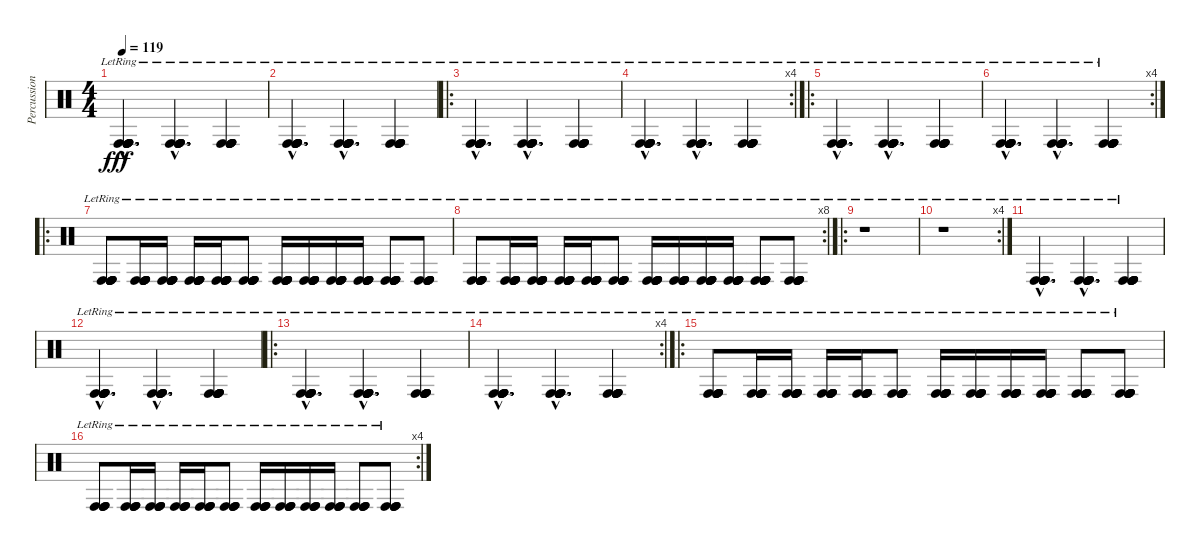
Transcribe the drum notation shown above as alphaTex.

\track ("Percussion" "Percussion") {instrument percussion}
\staff {score}
\articulation defaults
\ts (4 4)
\tempo 119
\clef neutral
\ks c
("Conga high (hit)"{hac lr} "Conga high (hit)"{hac lr} "Conga high (hit)"{hac lr} "Conga high (hit)"{hac lr} "Conga high (hit)"{hac lr} "Conga high (hit)"{hac lr}).4{d dy fff} ("Conga high (hit)"{hac lr} "Conga high (hit)"{hac lr} "Conga high (hit)"{hac lr} "Conga high (hit)"{hac lr} "Conga high (hit)"{hac lr} "Conga high (hit)"{hac lr}).4{d} ("Conga high (hit)"{lr} "Conga high (hit)"{lr} "Conga high (hit)"{lr} "Conga high (hit)"{lr} "Conga high (hit)"{lr} "Conga high (hit)"{lr}).4 |
("Conga high (hit)"{hac lr} "Conga high (hit)"{hac lr} "Conga high (hit)"{hac lr} "Conga high (hit)"{hac lr} "Conga high (hit)"{hac lr} "Conga high (hit)"{hac lr}).4{d} ("Conga high (hit)"{hac lr} "Conga high (hit)"{hac lr} "Conga high (hit)"{hac lr} "Conga high (hit)"{hac lr} "Conga high (hit)"{hac lr} "Conga high (hit)"{hac lr}).4{d} ("Conga high (hit)"{lr} "Conga high (hit)"{lr} "Conga high (hit)"{lr} "Conga high (hit)"{lr} "Conga high (hit)"{lr} "Conga high (hit)"{lr}).4 |
\ro
("Conga high (hit)"{hac lr} "Conga high (hit)"{hac lr} "Conga high (hit)"{hac lr} "Conga high (hit)"{hac lr} "Conga high (hit)"{hac lr} "Conga high (hit)"{hac lr}).4{d} ("Conga high (hit)"{hac lr} "Conga high (hit)"{hac lr} "Conga high (hit)"{hac lr} "Conga high (hit)"{hac lr} "Conga high (hit)"{hac lr} "Conga high (hit)"{hac lr}).4{d} ("Conga high (hit)"{lr} "Conga high (hit)"{lr} "Conga high (hit)"{lr} "Conga high (hit)"{lr} "Conga high (hit)"{lr} "Conga high (hit)"{lr}).4 |
\rc 4
("Conga high (hit)"{hac lr} "Conga high (hit)"{hac lr} "Conga high (hit)"{hac lr} "Conga high (hit)"{hac lr} "Conga high (hit)"{hac lr} "Conga high (hit)"{hac lr}).4{d} ("Conga high (hit)"{hac lr} "Conga high (hit)"{hac lr} "Conga high (hit)"{hac lr} "Conga high (hit)"{hac lr} "Conga high (hit)"{hac lr} "Conga high (hit)"{hac lr}).4{d} ("Conga high (hit)"{lr} "Conga high (hit)"{lr} "Conga high (hit)"{lr} "Conga high (hit)"{lr} "Conga high (hit)"{lr} "Conga high (hit)"{lr}).4 |
\ro
("Conga high (hit)"{hac lr} "Conga high (hit)"{hac lr} "Conga high (hit)"{hac lr} "Conga high (hit)"{hac lr} "Conga high (hit)"{hac lr} "Conga high (hit)"{hac lr}).4{d} ("Conga high (hit)"{hac lr} "Conga high (hit)"{hac lr} "Conga high (hit)"{hac lr} "Conga high (hit)"{hac lr} "Conga high (hit)"{hac lr} "Conga high (hit)"{hac lr}).4{d} ("Conga high (hit)"{lr} "Conga high (hit)"{lr} "Conga high (hit)"{lr} "Conga high (hit)"{lr} "Conga high (hit)"{lr} "Conga high (hit)"{lr}).4 |
\rc 4
("Conga high (hit)"{hac lr} "Conga high (hit)"{hac lr} "Conga high (hit)"{hac lr} "Conga high (hit)"{hac lr} "Conga high (hit)"{hac lr} "Conga high (hit)"{hac lr}).4{d} ("Conga high (hit)"{hac lr} "Conga high (hit)"{hac lr} "Conga high (hit)"{hac lr} "Conga high (hit)"{hac lr} "Conga high (hit)"{hac lr} "Conga high (hit)"{hac lr}).4{d} ("Conga high (hit)"{lr} "Conga high (hit)"{lr} "Conga high (hit)"{lr} "Conga high (hit)"{lr} "Conga high (hit)"{lr} "Conga high (hit)"{lr}).4 |
\ro
("Conga high (hit)"{lr} "Conga high (hit)"{lr} "Conga high (hit)"{lr} "Conga high (hit)"{lr} "Conga high (hit)" "Conga high (hit)").8 ("Conga high (hit)"{lr} "Conga high (hit)"{lr} "Conga high (hit)"{lr} "Conga high (hit)"{lr} "Conga high (hit)" "Conga high (hit)").16 ("Conga high (hit)"{lr} "Conga high (hit)"{lr} "Conga high (hit)"{lr} "Conga high (hit)"{lr} "Conga high (hit)" "Conga high (hit)").16 ("Conga high (hit)"{lr} "Conga high (hit)"{lr} "Conga high (hit)"{lr} "Conga high (hit)"{lr} "Conga high (hit)" "Conga high (hit)").16 ("Conga high (hit)"{lr} "Conga high (hit)"{lr} "Conga high (hit)"{lr} "Conga high (hit)"{lr} "Conga high (hit)" "Conga high (hit)").16 ("Conga high (hit)"{lr} "Conga high (hit)"{lr} "Conga high (hit)"{lr} "Conga high (hit)"{lr} "Conga high (hit)" "Conga high (hit)").8 ("Conga high (hit)"{lr} "Conga high (hit)"{lr} "Conga high (hit)"{lr} "Conga high (hit)"{lr} "Conga high (hit)" "Conga high (hit)").16 ("Conga high (hit)"{lr} "Conga high (hit)"{lr} "Conga high (hit)"{lr} "Conga high (hit)"{lr} "Conga high (hit)" "Conga high (hit)").16 ("Conga high (hit)"{lr} "Conga high (hit)"{lr} "Conga high (hit)"{lr} "Conga high (hit)"{lr} "Conga high (hit)" "Conga high (hit)").16 ("Conga high (hit)"{lr} "Conga high (hit)"{lr} "Conga high (hit)"{lr} "Conga high (hit)"{lr} "Conga high (hit)" "Conga high (hit)").16 ("Conga high (hit)"{lr} "Conga high (hit)"{lr} "Conga high (hit)"{lr} "Conga high (hit)"{lr} "Conga high (hit)" "Conga high (hit)").8 ("Conga high (hit)"{lr} "Conga high (hit)"{lr} "Conga high (hit)"{lr} "Conga high (hit)"{lr} "Conga high (hit)" "Conga high (hit)").8 |
\rc 8
("Conga high (hit)"{lr} "Conga high (hit)"{lr} "Conga high (hit)"{lr} "Conga high (hit)"{lr} "Conga high (hit)" "Conga high (hit)").8 ("Conga high (hit)"{lr} "Conga high (hit)"{lr} "Conga high (hit)"{lr} "Conga high (hit)"{lr} "Conga high (hit)" "Conga high (hit)").16 ("Conga high (hit)"{lr} "Conga high (hit)"{lr} "Conga high (hit)"{lr} "Conga high (hit)"{lr} "Conga high (hit)" "Conga high (hit)").16 ("Conga high (hit)"{lr} "Conga high (hit)"{lr} "Conga high (hit)"{lr} "Conga high (hit)"{lr} "Conga high (hit)" "Conga high (hit)").16 ("Conga high (hit)"{lr} "Conga high (hit)"{lr} "Conga high (hit)"{lr} "Conga high (hit)"{lr} "Conga high (hit)" "Conga high (hit)").16 ("Conga high (hit)"{lr} "Conga high (hit)"{lr} "Conga high (hit)"{lr} "Conga high (hit)"{lr} "Conga high (hit)" "Conga high (hit)").8 ("Conga high (hit)"{lr} "Conga high (hit)"{lr} "Conga high (hit)"{lr} "Conga high (hit)"{lr} "Conga high (hit)" "Conga high (hit)").16 ("Conga high (hit)"{lr} "Conga high (hit)"{lr} "Conga high (hit)"{lr} "Conga high (hit)"{lr} "Conga high (hit)" "Conga high (hit)").16 ("Conga high (hit)"{lr} "Conga high (hit)"{lr} "Conga high (hit)"{lr} "Conga high (hit)"{lr} "Conga high (hit)" "Conga high (hit)").16 ("Conga high (hit)"{lr} "Conga high (hit)"{lr} "Conga high (hit)"{lr} "Conga high (hit)"{lr} "Conga high (hit)" "Conga high (hit)").16 ("Conga high (hit)"{lr} "Conga high (hit)"{lr} "Conga high (hit)"{lr} "Conga high (hit)"{lr} "Conga high (hit)" "Conga high (hit)").8 ("Conga high (hit)"{lr} "Conga high (hit)"{lr} "Conga high (hit)"{lr} "Conga high (hit)"{lr} "Conga high (hit)" "Conga high (hit)").8 |
\ro
r.1 |
\rc 4
r.1 |
("Conga high (hit)"{hac lr} "Conga high (hit)"{hac lr} "Conga high (hit)"{hac lr} "Conga high (hit)"{hac lr} "Conga high (hit)"{hac lr} "Conga high (hit)"{hac lr}).4{d} ("Conga high (hit)"{hac lr} "Conga high (hit)"{hac lr} "Conga high (hit)"{hac lr} "Conga high (hit)"{hac lr} "Conga high (hit)"{hac lr} "Conga high (hit)"{hac lr}).4{d} ("Conga high (hit)"{lr} "Conga high (hit)"{lr} "Conga high (hit)"{lr} "Conga high (hit)"{lr} "Conga high (hit)"{lr} "Conga high (hit)"{lr}).4 |
("Conga high (hit)"{hac lr} "Conga high (hit)"{hac lr} "Conga high (hit)"{hac lr} "Conga high (hit)"{hac lr} "Conga high (hit)"{hac lr} "Conga high (hit)"{hac lr}).4{d} ("Conga high (hit)"{hac lr} "Conga high (hit)"{hac lr} "Conga high (hit)"{hac lr} "Conga high (hit)"{hac lr} "Conga high (hit)"{hac lr} "Conga high (hit)"{hac lr}).4{d} ("Conga high (hit)"{lr} "Conga high (hit)"{lr} "Conga high (hit)"{lr} "Conga high (hit)"{lr} "Conga high (hit)"{lr} "Conga high (hit)"{lr}).4 |
\ro
("Conga high (hit)"{hac lr} "Conga high (hit)"{hac lr} "Conga high (hit)"{hac lr} "Conga high (hit)"{hac lr} "Conga high (hit)"{hac lr} "Conga high (hit)"{hac lr}).4{d} ("Conga high (hit)"{hac lr} "Conga high (hit)"{hac lr} "Conga high (hit)"{hac lr} "Conga high (hit)"{hac lr} "Conga high (hit)"{hac lr} "Conga high (hit)"{hac lr}).4{d} ("Conga high (hit)"{lr} "Conga high (hit)"{lr} "Conga high (hit)"{lr} "Conga high (hit)"{lr} "Conga high (hit)"{lr} "Conga high (hit)"{lr}).4 |
\rc 4
("Conga high (hit)"{hac lr} "Conga high (hit)"{hac lr} "Conga high (hit)"{hac lr} "Conga high (hit)"{hac lr} "Conga high (hit)"{hac lr} "Conga high (hit)"{hac lr}).4{d} ("Conga high (hit)"{hac lr} "Conga high (hit)"{hac lr} "Conga high (hit)"{hac lr} "Conga high (hit)"{hac lr} "Conga high (hit)"{hac lr} "Conga high (hit)"{hac lr}).4{d} ("Conga high (hit)"{lr} "Conga high (hit)"{lr} "Conga high (hit)"{lr} "Conga high (hit)"{lr} "Conga high (hit)"{lr} "Conga high (hit)"{lr}).4 |
\ro
("Conga high (hit)"{lr} "Conga high (hit)"{lr} "Conga high (hit)"{lr} "Conga high (hit)"{lr} "Conga high (hit)" "Conga high (hit)").8 ("Conga high (hit)"{lr} "Conga high (hit)"{lr} "Conga high (hit)"{lr} "Conga high (hit)"{lr} "Conga high (hit)" "Conga high (hit)").16 ("Conga high (hit)"{lr} "Conga high (hit)"{lr} "Conga high (hit)"{lr} "Conga high (hit)"{lr} "Conga high (hit)" "Conga high (hit)").16 ("Conga high (hit)"{lr} "Conga high (hit)"{lr} "Conga high (hit)"{lr} "Conga high (hit)"{lr} "Conga high (hit)" "Conga high (hit)").16 ("Conga high (hit)"{lr} "Conga high (hit)"{lr} "Conga high (hit)"{lr} "Conga high (hit)"{lr} "Conga high (hit)" "Conga high (hit)").16 ("Conga high (hit)"{lr} "Conga high (hit)"{lr} "Conga high (hit)"{lr} "Conga high (hit)"{lr} "Conga high (hit)" "Conga high (hit)").8 ("Conga high (hit)"{lr} "Conga high (hit)"{lr} "Conga high (hit)"{lr} "Conga high (hit)"{lr} "Conga high (hit)" "Conga high (hit)").16 ("Conga high (hit)"{lr} "Conga high (hit)"{lr} "Conga high (hit)"{lr} "Conga high (hit)"{lr} "Conga high (hit)" "Conga high (hit)").16 ("Conga high (hit)"{lr} "Conga high (hit)"{lr} "Conga high (hit)"{lr} "Conga high (hit)"{lr} "Conga high (hit)" "Conga high (hit)").16 ("Conga high (hit)"{lr} "Conga high (hit)"{lr} "Conga high (hit)"{lr} "Conga high (hit)"{lr} "Conga high (hit)" "Conga high (hit)").16 ("Conga high (hit)"{lr} "Conga high (hit)"{lr} "Conga high (hit)"{lr} "Conga high (hit)"{lr} "Conga high (hit)" "Conga high (hit)").8 ("Conga high (hit)"{lr} "Conga high (hit)"{lr} "Conga high (hit)"{lr} "Conga high (hit)"{lr} "Conga high (hit)" "Conga high (hit)").8 |
\rc 4
("Conga high (hit)"{lr} "Conga high (hit)"{lr} "Conga high (hit)"{lr} "Conga high (hit)"{lr}).8 ("Conga high (hit)"{lr} "Conga high (hit)"{lr} "Conga high (hit)"{lr} "Conga high (hit)"{lr}).16 ("Conga high (hit)"{lr} "Conga high (hit)"{lr} "Conga high (hit)"{lr} "Conga high (hit)"{lr}).16 ("Conga high (hit)"{lr} "Conga high (hit)"{lr} "Conga high (hit)"{lr} "Conga high (hit)"{lr}).16 ("Conga high (hit)"{lr} "Conga high (hit)"{lr} "Conga high (hit)"{lr} "Conga high (hit)"{lr}).16 ("Conga high (hit)"{lr} "Conga high (hit)"{lr} "Conga high (hit)"{lr} "Conga high (hit)"{lr}).8 ("Conga high (hit)"{lr} "Conga high (hit)"{lr} "Conga high (hit)"{lr} "Conga high (hit)"{lr}).16 ("Conga high (hit)"{lr} "Conga high (hit)"{lr} "Conga high (hit)"{lr} "Conga high (hit)"{lr}).16 ("Conga high (hit)"{lr} "Conga high (hit)"{lr} "Conga high (hit)"{lr} "Conga high (hit)"{lr}).16 ("Conga high (hit)"{lr} "Conga high (hit)"{lr} "Conga high (hit)"{lr} "Conga high (hit)"{lr}).16 ("Conga high (hit)"{lr} "Conga high (hit)"{lr} "Conga high (hit)"{lr} "Conga high (hit)"{lr}).8 ("Conga high (hit)"{lr} "Conga high (hit)"{lr} "Conga high (hit)"{lr} "Conga high (hit)"{lr}).8
